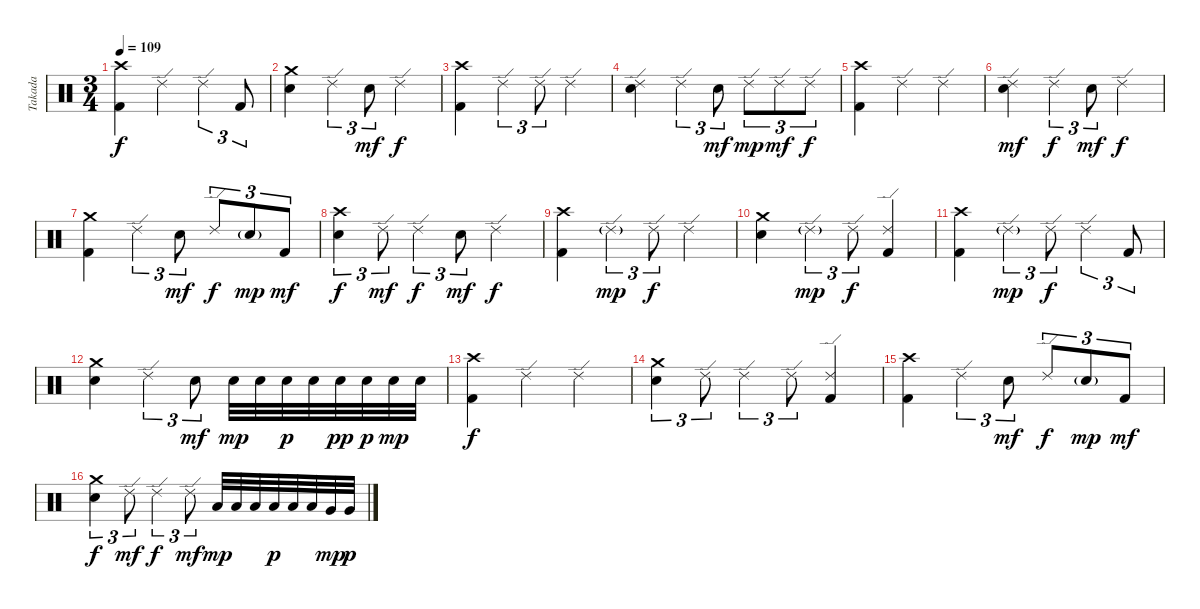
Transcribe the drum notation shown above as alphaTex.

\track ("Takada" "Takada") {instrument percussion}
\staff {score}
\articulation defaults
\ts (3 4)
\section ("" "")
\tempo 109
\clef neutral
\ks c
("Crash high (hit)" "Kick (hit) 2").4{dy f} "Ride (edge) 2".4 "Ride (edge) 2".4{tu (3 2)} "Kick (hit) 2".8{tu (3 2)} |
("Crash medium (hit)" "Electric Snare (hit)").4 "Ride (edge) 2".4{tu (3 2)} "Electric Snare (hit)".8{tu (3 2) dy mf} "Ride (edge) 2".4{dy f} |
("Crash high (hit)" "Kick (hit) 2").4 "Ride (edge) 2".4{tu (3 2)} "Ride (edge) 2".8{tu (3 2)} "Ride (edge) 2".4 |
("Ride (edge) 2" "Electric Snare (hit)").4 "Ride (edge) 2".4{tu (3 2)} "Electric Snare (hit)".8{tu (3 2) dy mf} "Ride (edge) 2".8{tu (3 2) dy mp} "Ride (edge) 2".8{tu (3 2) dy mf} "Ride (edge) 2".8{tu (3 2) dy f} |
("Crash high (hit)" "Kick (hit) 2").4 "Ride (edge) 2".4 "Ride (edge) 2".4 |
("Ride (edge) 2" "Electric Snare (hit)").4{dy mf} "Ride (edge) 2".4{tu (3 2) dy f} "Electric Snare (hit)".8{tu (3 2) dy mf} "Ride (edge) 2".4{dy f} |
("Crash medium (hit)" "Kick (hit) 2").4 "Ride (edge) 2".4{tu (3 2)} "Electric Snare (hit)".8{tu (3 2) dy mf} "Ride (edge) 2".8{tu (3 2) dy f} "Electric Snare (hit)"{g}.8{tu (3 2) dy mp} "Kick (hit) 2".8{tu (3 2) dy mf} |
("Crash high (hit)" "Electric Snare (hit)").4{tu (3 2) dy f} "Ride (edge) 2".8{tu (3 2) dy mf} "Ride (edge) 2".4{tu (3 2) dy f} "Electric Snare (hit)".8{tu (3 2) dy mf} "Ride (edge) 2".4{dy f} |
("Crash high (hit)" "Kick (hit) 2").4 "Ride (edge) 2"{g}.4{tu (3 2) dy mp} "Ride (edge) 2".8{tu (3 2) dy f} "Ride (edge) 2".4 |
("Crash medium (hit)" "Electric Snare (hit)").4 "Ride (edge) 2"{g}.4{tu (3 2) dy mp} "Ride (edge) 2".8{tu (3 2) dy f} ("Ride (edge) 2" "Kick (hit) 2").4 |
("Crash high (hit)" "Kick (hit) 2").4 "Ride (edge) 2"{g}.4{tu (3 2) dy mp} "Ride (edge) 2".8{tu (3 2) dy f} "Ride (edge) 2".4{tu (3 2)} "Kick (hit) 2".8{tu (3 2)} |
("Crash medium (hit)" "Electric Snare (hit)").4 "Ride (edge) 2".4{tu (3 2)} "Electric Snare (hit)".8{tu (3 2) dy mf} "Electric Snare (hit)".32{dy mp} "Electric Snare (hit)".32 "Electric Snare (hit)".32{dy p} "Electric Snare (hit)".32 "Electric Snare (hit)".32{dy pp} "Electric Snare (hit)".32{dy p} "Electric Snare (hit)".32{dy mp} "Electric Snare (hit)".32 |
("Crash high (hit)" "Kick (hit) 2").4{dy f} "Ride (edge) 2".4 "Ride (edge) 2".4 |
("Crash medium (hit)" "Electric Snare (hit)").4{tu (3 2)} "Ride (edge) 2".8{tu (3 2)} "Ride (edge) 2".4{tu (3 2)} "Ride (edge) 2".8{tu (3 2)} ("Ride (edge) 2" "Kick (hit) 2").4 |
("Crash high (hit)" "Kick (hit) 2").4 "Ride (edge) 2".4{tu (3 2)} "Electric Snare (hit)".8{tu (3 2) dy mf} "Ride (edge) 2".8{tu (3 2) dy f} "Electric Snare (hit)"{g}.8{tu (3 2) dy mp} "Kick (hit) 2".8{tu (3 2) dy mf} |
("Crash medium (hit)" "Electric Snare (hit)").4{tu (3 2) dy f} "Ride (edge) 2".8{tu (3 2) dy mf} "Ride (edge) 2".4{tu (3 2) dy f} "Ride (edge) 2".8{tu (3 2) dy mf} "Low Tom (hit)".32{dy mp} "Low Tom (hit)".32 "Low Tom (hit)".32 "Low Tom (hit)".32{dy p} "Low Tom (hit)".32 "Low Tom (hit)".32 "Very Low Tom (hit)".32{dy mp} "Very Low Tom (hit)".32{dy p}
